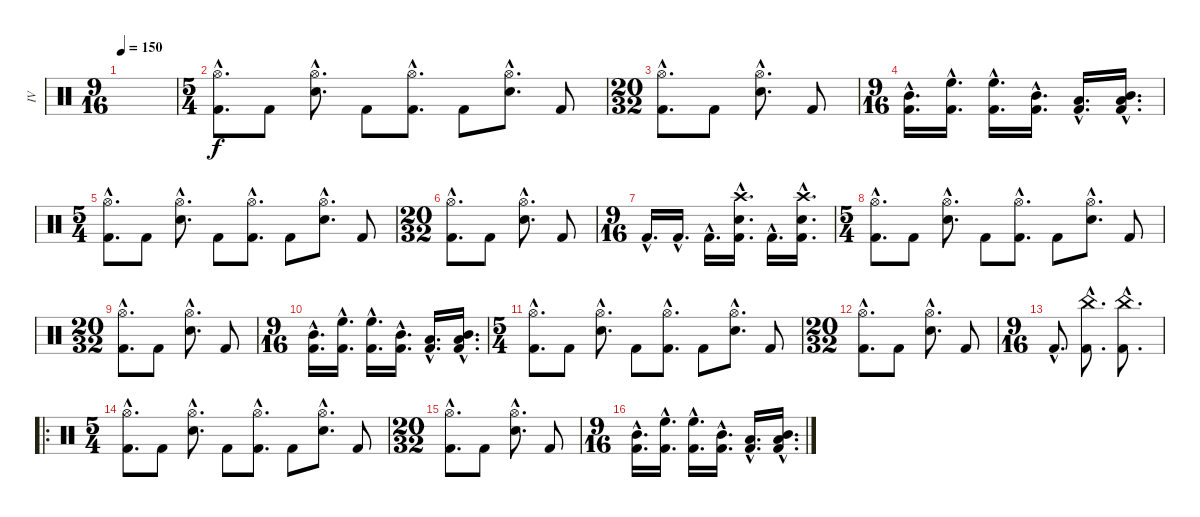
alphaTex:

\track ("IV" "IV") {instrument percussion}
\staff {score}
\articulation defaults
\ts (9 16)
\tempo 150
\clef neutral
\ks c
|
\ts (5 4)
("Hi-Hat (open)"{hac} "Kick (hit) 2"{hac}).8{d} "Kick (hit) 2".8 ("Hi-Hat (open)"{hac} "Snare (hit) 2"{hac}).8{d} "Kick (hit) 2".8 ("Hi-Hat (open)"{hac} "Kick (hit) 2"{hac}).8{d} "Kick (hit) 2".8 ("Hi-Hat (open)"{hac} "Snare (hit) 2"{hac}).8{d} "Kick (hit) 2".8 |
\ts (20 32)
("Hi-Hat (open)"{hac} "Kick (hit) 2"{hac}).8{d} "Kick (hit) 2".8 ("Hi-Hat (open)"{hac} "Snare (hit) 2"{hac}).8{d} "Kick (hit) 2".8 |
\ts (9 16)
("Mid Tom (hit)"{hac} "Kick (hit) 2"{hac}).16{d} ("High Floor Tom (hit)"{hac} "Kick (hit) 2"{hac}).16{d} ("High Floor Tom (hit)"{hac} "Kick (hit) 2"{hac}).16{d} ("Mid Tom (hit)"{hac} "Kick (hit) 2"{hac}).16{d} ("Low Tom (hit)"{hac} "Kick (hit) 2"{hac}).16{d} ("Mid Tom (hit)"{hac} "Low Tom (hit)"{hac} "Kick (hit) 2"{hac}).16{d} |
\ts (5 4)
("Hi-Hat (open)"{hac} "Kick (hit) 2"{hac}).8{d} "Kick (hit) 2".8 ("Hi-Hat (open)"{hac} "Snare (hit) 2"{hac}).8{d} "Kick (hit) 2".8 ("Hi-Hat (open)"{hac} "Kick (hit) 2"{hac}).8{d} "Kick (hit) 2".8 ("Hi-Hat (open)"{hac} "Snare (hit) 2"{hac}).8{d} "Kick (hit) 2".8 |
\ts (20 32)
("Hi-Hat (open)"{hac} "Kick (hit) 2"{hac}).8{d} "Kick (hit) 2".8 ("Hi-Hat (open)"{hac} "Snare (hit) 2"{hac}).8{d} "Kick (hit) 2".8 |
\ts (9 16)
"Kick (hit) 2"{hac}.16{d} "Kick (hit) 2"{hac}.16{d} "Kick (hit) 2"{hac}.16{d} ("Crash high (hit)"{hac} "Snare (hit) 2"{hac} "Kick (hit) 2"{hac}).16{d} "Kick (hit) 2"{hac}.16{d} ("Crash high (hit)"{hac} "Snare (hit) 2"{hac} "Kick (hit) 2"{hac}).16{d} |
\ts (5 4)
("Hi-Hat (open)"{hac} "Kick (hit) 2"{hac}).8{d} "Kick (hit) 2".8 ("Hi-Hat (open)"{hac} "Snare (hit) 2"{hac}).8{d} "Kick (hit) 2".8 ("Hi-Hat (open)"{hac} "Kick (hit) 2"{hac}).8{d} "Kick (hit) 2".8 ("Hi-Hat (open)"{hac} "Snare (hit) 2"{hac}).8{d} "Kick (hit) 2".8 |
\ts (20 32)
("Hi-Hat (open)"{hac} "Kick (hit) 2"{hac}).8{d} "Kick (hit) 2".8 ("Hi-Hat (open)"{hac} "Snare (hit) 2"{hac}).8{d} "Kick (hit) 2".8 |
\ts (9 16)
("Mid Tom (hit)"{hac} "Kick (hit) 2"{hac}).16{d} ("High Floor Tom (hit)"{hac} "Kick (hit) 2"{hac}).16{d} ("High Floor Tom (hit)"{hac} "Kick (hit) 2"{hac}).16{d} ("Mid Tom (hit)"{hac} "Kick (hit) 2"{hac}).16{d} ("Low Tom (hit)"{hac} "Kick (hit) 2"{hac}).16{d} ("Mid Tom (hit)"{hac} "Low Tom (hit)"{hac} "Kick (hit) 2"{hac}).16{d} |
\ts (5 4)
("Hi-Hat (open)"{hac} "Kick (hit) 2"{hac}).8{d} "Kick (hit) 2".8 ("Hi-Hat (open)"{hac} "Snare (hit) 2"{hac}).8{d} "Kick (hit) 2".8 ("Hi-Hat (open)"{hac} "Kick (hit) 2"{hac}).8{d} "Kick (hit) 2".8 ("Hi-Hat (open)"{hac} "Snare (hit) 2"{hac}).8{d} "Kick (hit) 2".8 |
\ts (20 32)
("Hi-Hat (open)"{hac} "Kick (hit) 2"{hac}).8{d} "Kick (hit) 2".8 ("Hi-Hat (open)"{hac} "Snare (hit) 2"{hac}).8{d} "Kick (hit) 2".8 |
\ts (9 16)
"Kick (hit) 2"{hac}.8{d} ("China (hit)"{hac} "Kick (hit) 2"{hac}).8{d} ("China (hit)"{hac} "Kick (hit) 2"{hac}).8{d} |
\ro
\ts (5 4)
("Hi-Hat (open)"{hac} "Kick (hit) 2"{hac}).8{d} "Kick (hit) 2".8 ("Hi-Hat (open)"{hac} "Snare (hit) 2"{hac}).8{d} "Kick (hit) 2".8 ("Hi-Hat (open)"{hac} "Kick (hit) 2"{hac}).8{d} "Kick (hit) 2".8 ("Hi-Hat (open)"{hac} "Snare (hit) 2"{hac}).8{d} "Kick (hit) 2".8 |
\ts (20 32)
("Hi-Hat (open)"{hac} "Kick (hit) 2"{hac}).8{d} "Kick (hit) 2".8 ("Hi-Hat (open)"{hac} "Snare (hit) 2"{hac}).8{d} "Kick (hit) 2".8 |
\ts (9 16)
("Mid Tom (hit)"{hac} "Kick (hit) 2"{hac}).16{d} ("High Floor Tom (hit)"{hac} "Kick (hit) 2"{hac}).16{d} ("High Floor Tom (hit)"{hac} "Kick (hit) 2"{hac}).16{d} ("Mid Tom (hit)"{hac} "Kick (hit) 2"{hac}).16{d} ("Low Tom (hit)"{hac} "Kick (hit) 2"{hac}).16{d} ("Mid Tom (hit)"{hac} "Low Tom (hit)"{hac} "Kick (hit) 2"{hac}).16{d}
